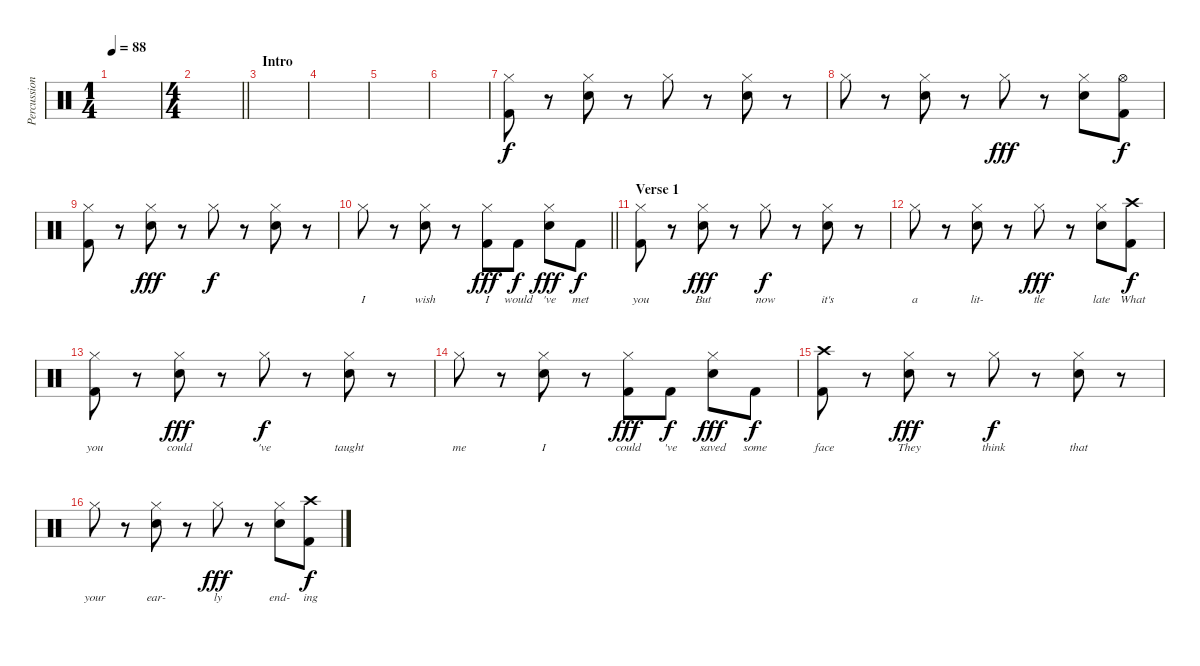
\track ("Percussion" "Percussion") {instrument percussion}
\staff {score}
\articulation defaults
\ts (1 4)
\tempo 88
\clef neutral
\ks c
|
\ts (4 4)
\barLineRight lightlight
|
\section ("" "Intro")
|
|
|
|
("Hi-Hat (closed)" "Kick (hit) 2").8 r.8 ("Hi-Hat (closed)" "Snare (hit) 2").8 r.8 "Hi-Hat (closed)".8 r.8 ("Hi-Hat (closed)" "Snare (hit) 2").8 r.8 |
"Hi-Hat (closed)".8 r.8 ("Hi-Hat (closed)" "Snare (hit) 2").8 r.8 "Hi-Hat (closed)".8{dy fff} r.8 ("Hi-Hat (closed)" "Snare (hit) 2").8 ("Hi-Hat (open)" "Kick (hit) 2").8{dy f} |
("Hi-Hat (closed)" "Kick (hit) 2").8 r.8 ("Hi-Hat (closed)" "Snare (hit) 2").8{dy fff} r.8 "Hi-Hat (closed)".8{dy f} r.8 ("Hi-Hat (closed)" "Snare (hit) 2").8 r.8 |
\barLineRight lightlight "Hi-Hat (closed)".8{lyrics (0 "I") lyrics (1 "") lyrics (2 "") lyrics (3 "") lyrics (4 "")}
r.8 ("Hi-Hat (closed)" "Snare (hit) 2").8{lyrics (0 "wish") lyrics (1 "") lyrics (2 "") lyrics (3 "") lyrics (4 "")} r.8 ("Hi-Hat (closed)" "Kick (hit) 2").8{lyrics (0 "I") lyrics (1 "") lyrics (2 "") lyrics (3 "") lyrics (4 "") dy fff} "Kick (hit) 2".8{lyrics (0 "would") lyrics (1 "") lyrics (2 "") lyrics (3 "") lyrics (4 "") dy f} ("Hi-Hat (closed)" "Snare (hit) 2").8{lyrics (0 "'ve") lyrics (1 "") lyrics (2 "") lyrics (3 "") lyrics (4 "") dy fff} "Kick (hit) 2".8{lyrics (0 "met") lyrics (1 "") lyrics (2 "") lyrics (3 "") lyrics (4 "") dy f} |
\section ("" "Verse 1")
("Hi-Hat (closed)" "Kick (hit) 2").8{lyrics (0 "you") lyrics (1 "") lyrics (2 "") lyrics (3 "") lyrics (4 "")} r.8 ("Hi-Hat (closed)" "Snare (hit) 2").8{lyrics (0 "But") lyrics (1 "") lyrics (2 "") lyrics (3 "") lyrics (4 "") dy fff} r.8 "Hi-Hat (closed)".8{lyrics (0 "now") lyrics (1 "") lyrics (2 "") lyrics (3 "") lyrics (4 "") dy f} r.8 ("Hi-Hat (closed)" "Snare (hit) 2").8{lyrics (0 "it's") lyrics (1 "") lyrics (2 "") lyrics (3 "") lyrics (4 "")} r.8 |
"Hi-Hat (closed)".8{lyrics (0 "a") lyrics (1 "") lyrics (2 "") lyrics (3 "") lyrics (4 "")} r.8 ("Hi-Hat (closed)" "Snare (hit) 2").8{lyrics (0 "lit-") lyrics (1 "") lyrics (2 "") lyrics (3 "") lyrics (4 "")} r.8 "Hi-Hat (closed)".8{lyrics (0 "tle") lyrics (1 "") lyrics (2 "") lyrics (3 "") lyrics (4 "") dy fff} r.8 ("Hi-Hat (closed)" "Snare (hit) 2").8{lyrics (0 "late") lyrics (1 "") lyrics (2 "") lyrics (3 "") lyrics (4 "")} ("Crash high (hit)" "Kick (hit) 2").8{lyrics (0 "What") lyrics (1 "") lyrics (2 "") lyrics (3 "") lyrics (4 "") dy f} |
("Hi-Hat (closed)" "Kick (hit) 2").8{lyrics (0 "you") lyrics (1 "") lyrics (2 "") lyrics (3 "") lyrics (4 "")} r.8 ("Hi-Hat (closed)" "Snare (hit) 2").8{lyrics (0 "could") lyrics (1 "") lyrics (2 "") lyrics (3 "") lyrics (4 "") dy fff} r.8 "Hi-Hat (closed)".8{lyrics (0 "'ve") lyrics (1 "") lyrics (2 "") lyrics (3 "") lyrics (4 "") dy f} r.8 ("Hi-Hat (closed)" "Snare (hit) 2").8{lyrics (0 "taught") lyrics (1 "") lyrics (2 "") lyrics (3 "") lyrics (4 "")} r.8 |
"Hi-Hat (closed)".8{lyrics (0 "me") lyrics (1 "") lyrics (2 "") lyrics (3 "") lyrics (4 "")} r.8 ("Hi-Hat (closed)" "Snare (hit) 2").8{lyrics (0 "I") lyrics (1 "") lyrics (2 "") lyrics (3 "") lyrics (4 "")} r.8 ("Hi-Hat (closed)" "Kick (hit) 2").8{lyrics (0 "could") lyrics (1 "") lyrics (2 "") lyrics (3 "") lyrics (4 "") dy fff} "Kick (hit) 2".8{lyrics (0 "'ve") lyrics (1 "") lyrics (2 "") lyrics (3 "") lyrics (4 "") dy f} ("Hi-Hat (closed)" "Snare (hit) 2").8{lyrics (0 "saved") lyrics (1 "") lyrics (2 "") lyrics (3 "") lyrics (4 "") dy fff} "Kick (hit) 2".8{lyrics (0 "some") lyrics (1 "") lyrics (2 "") lyrics (3 "") lyrics (4 "") dy f} |
("Crash high (hit)" "Kick (hit) 2").8{lyrics (0 "face") lyrics (1 "") lyrics (2 "") lyrics (3 "") lyrics (4 "")} r.8 ("Hi-Hat (closed)" "Snare (hit) 2").8{lyrics (0 "They") lyrics (1 "") lyrics (2 "") lyrics (3 "") lyrics (4 "") dy fff} r.8 "Hi-Hat (closed)".8{lyrics (0 "think") lyrics (1 "") lyrics (2 "") lyrics (3 "") lyrics (4 "") dy f} r.8 ("Hi-Hat (closed)" "Snare (hit) 2").8{lyrics (0 "that") lyrics (1 "") lyrics (2 "") lyrics (3 "") lyrics (4 "")} r.8 |
"Hi-Hat (closed)".8{lyrics (0 "your") lyrics (1 "") lyrics (2 "") lyrics (3 "") lyrics (4 "")} r.8 ("Hi-Hat (closed)" "Snare (hit) 2").8{lyrics (0 "ear-") lyrics (1 "") lyrics (2 "") lyrics (3 "") lyrics (4 "")} r.8 "Hi-Hat (closed)".8{lyrics (0 "ly") lyrics (1 "") lyrics (2 "") lyrics (3 "") lyrics (4 "") dy fff} r.8 ("Hi-Hat (closed)" "Snare (hit) 2").8{lyrics (0 "end-") lyrics (1 "") lyrics (2 "") lyrics (3 "") lyrics (4 "")} ("Crash high (hit)" "Kick (hit) 2").8{lyrics (0 "ing") lyrics (1 "") lyrics (2 "") lyrics (3 "") lyrics (4 "") dy f}
